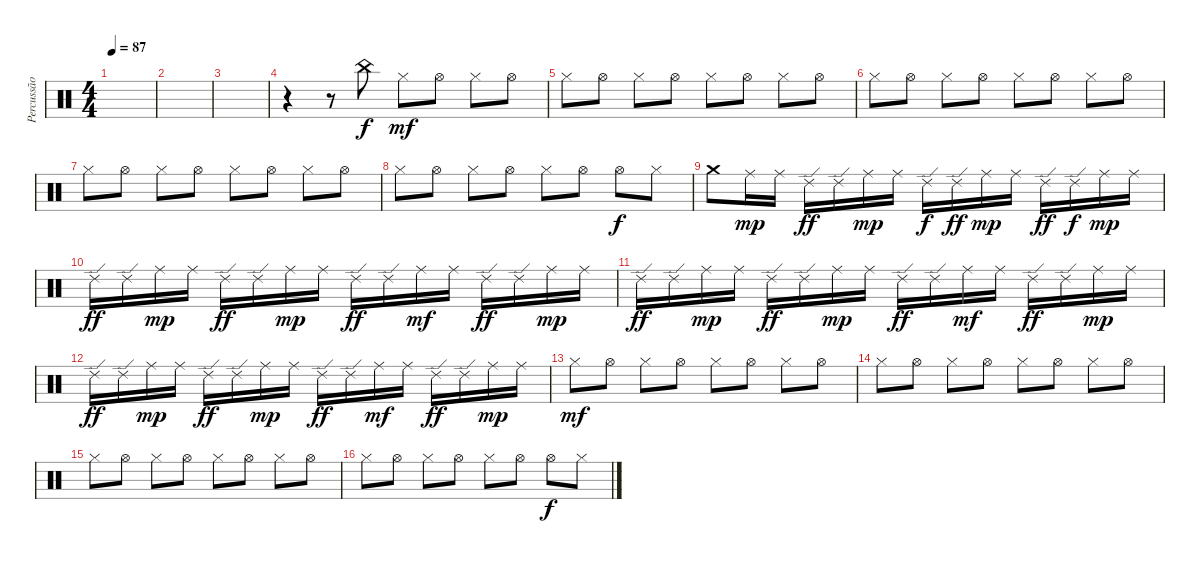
\track ("Percussão" "Percussão") {instrument percussion}
\staff {score}
\articulation defaults
\ts (4 4)
\tempo 87
\clef neutral
\ks c
|
|
|
r.4 r.8 "China (hit)".8 "Hi-Hat (closed)".8{dy mf} "Hi-Hat (open)".8 "Hi-Hat (closed)".8 "Hi-Hat (open)".8 |
"Hi-Hat (closed)".8 "Hi-Hat (open)".8 "Hi-Hat (closed)".8 "Hi-Hat (open)".8 "Hi-Hat (closed)".8 "Hi-Hat (open)".8 "Hi-Hat (closed)".8 "Hi-Hat (open)".8 |
"Hi-Hat (closed)".8 "Hi-Hat (open)".8 "Hi-Hat (closed)".8 "Hi-Hat (open)".8 "Hi-Hat (closed)".8 "Hi-Hat (open)".8 "Hi-Hat (closed)".8 "Hi-Hat (open)".8 |
"Hi-Hat (closed)".8 "Hi-Hat (open)".8 "Hi-Hat (closed)".8 "Hi-Hat (open)".8 "Hi-Hat (closed)".8 "Hi-Hat (open)".8 "Hi-Hat (closed)".8 "Hi-Hat (open)".8 |
"Hi-Hat (closed)".8 "Hi-Hat (open)".8 "Hi-Hat (closed)".8 "Hi-Hat (open)".8 "Hi-Hat (closed)".8 "Hi-Hat (open)".8 "Hi-Hat (open)".8{dy f} "Hi-Hat (closed)".8 |
"Crash medium (hit)".8 "Ride (middle)".16{dy mp} "Ride (middle)".16 "Ride (edge) 2".16{dy ff} "Ride (edge) 2".16 "Ride (middle)".16{dy mp} "Ride (middle)".16 "Ride (edge) 2".16{dy f} "Ride (edge) 2".16{dy ff} "Ride (middle)".16{dy mp} "Ride (middle)".16 "Ride (edge) 2".16{dy ff} "Ride (edge) 2".16{dy f} "Ride (middle)".16{dy mp} "Ride (middle)".16 |
"Ride (edge) 2".16{dy ff} "Ride (edge) 2".16 "Ride (middle)".16{dy mp} "Ride (middle)".16 "Ride (edge) 2".16{dy ff} "Ride (edge) 2".16 "Ride (middle)".16{dy mp} "Ride (middle)".16 "Ride (edge) 2".16{dy ff} "Ride (edge) 2".16 "Ride (middle)".16{dy mf} "Ride (middle)".16 "Ride (edge) 2".16{dy ff} "Ride (edge) 2".16 "Ride (middle)".16{dy mp} "Ride (middle)".16 |
"Ride (edge) 2".16{dy ff} "Ride (edge) 2".16 "Ride (middle)".16{dy mp} "Ride (middle)".16 "Ride (edge) 2".16{dy ff} "Ride (edge) 2".16 "Ride (middle)".16{dy mp} "Ride (middle)".16 "Ride (edge) 2".16{dy ff} "Ride (edge) 2".16 "Ride (middle)".16{dy mf} "Ride (middle)".16 "Ride (edge) 2".16{dy ff} "Ride (edge) 2".16 "Ride (middle)".16{dy mp} "Ride (middle)".16 |
"Ride (edge) 2".16{dy ff} "Ride (edge) 2".16 "Ride (middle)".16{dy mp} "Ride (middle)".16 "Ride (edge) 2".16{dy ff} "Ride (edge) 2".16 "Ride (middle)".16{dy mp} "Ride (middle)".16 "Ride (edge) 2".16{dy ff} "Ride (edge) 2".16 "Ride (middle)".16{dy mf} "Ride (middle)".16 "Ride (edge) 2".16{dy ff} "Ride (edge) 2".16 "Ride (middle)".16{dy mp} "Ride (middle)".16 |
"Hi-Hat (closed)".8{dy mf} "Hi-Hat (open)".8 "Hi-Hat (closed)".8 "Hi-Hat (open)".8 "Hi-Hat (closed)".8 "Hi-Hat (open)".8 "Hi-Hat (closed)".8 "Hi-Hat (open)".8 |
"Hi-Hat (closed)".8 "Hi-Hat (open)".8 "Hi-Hat (closed)".8 "Hi-Hat (open)".8 "Hi-Hat (closed)".8 "Hi-Hat (open)".8 "Hi-Hat (closed)".8 "Hi-Hat (open)".8 |
"Hi-Hat (closed)".8 "Hi-Hat (open)".8 "Hi-Hat (closed)".8 "Hi-Hat (open)".8 "Hi-Hat (closed)".8 "Hi-Hat (open)".8 "Hi-Hat (closed)".8 "Hi-Hat (open)".8 |
"Hi-Hat (closed)".8 "Hi-Hat (open)".8 "Hi-Hat (closed)".8 "Hi-Hat (open)".8 "Hi-Hat (closed)".8 "Hi-Hat (open)".8 "Hi-Hat (open)".8{dy f} "Hi-Hat (closed)".8
